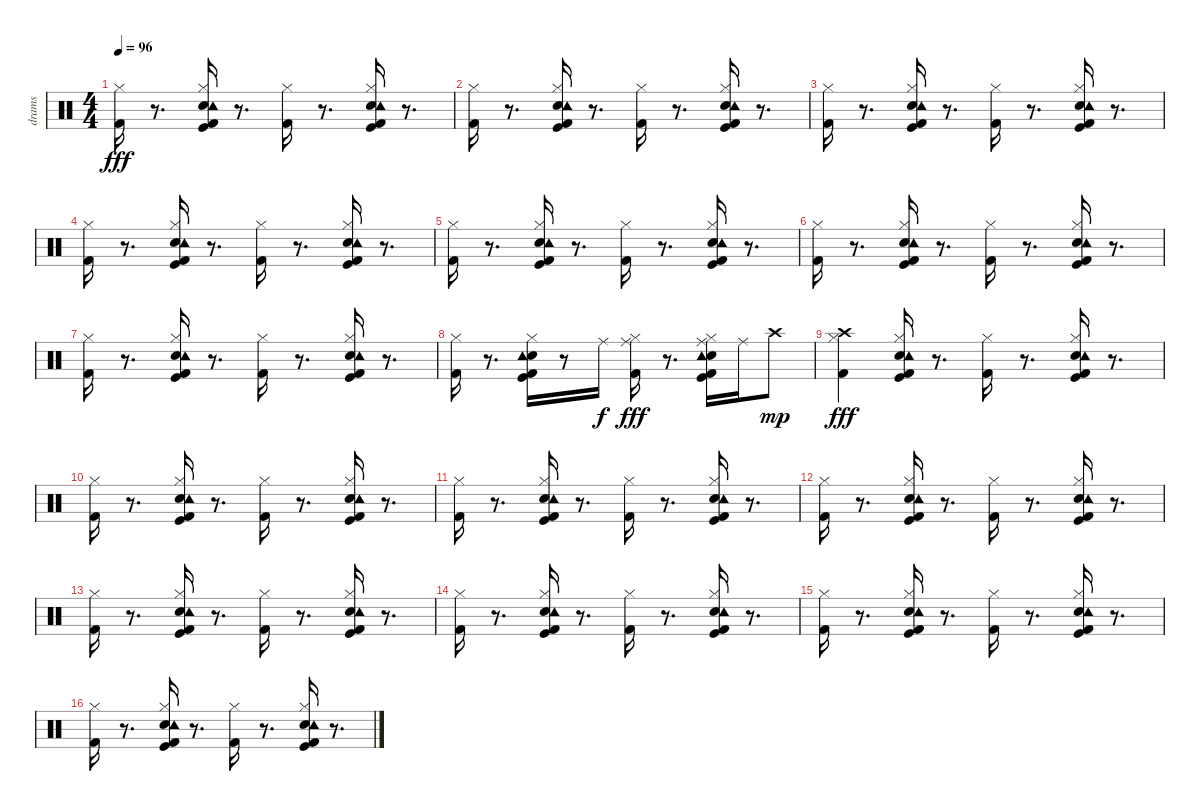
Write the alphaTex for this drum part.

\track ("drams" "drams") {instrument percussion}
\staff {score}
\articulation defaults
\ts (4 4)
\tempo 96
\clef neutral
\ks c
("Kick (hit) 2" "Hi-Hat (closed)").16{dy fff} r.8{d} ("Kick (hit)" "Kick (hit) 2" "Electric Snare (hit)" "Hi-Hat (closed)" "Tambourine (hit)").16 r.8{d} ("Kick (hit) 2" "Hi-Hat (closed)").16 r.8{d} ("Kick (hit)" "Kick (hit) 2" "Electric Snare (hit)" "Hi-Hat (closed)" "Tambourine (hit)").16 r.8{d} |
("Kick (hit) 2" "Hi-Hat (closed)").16 r.8{d} ("Kick (hit)" "Kick (hit) 2" "Electric Snare (hit)" "Hi-Hat (closed)" "Tambourine (hit)").16 r.8{d} ("Kick (hit) 2" "Hi-Hat (closed)").16 r.8{d} ("Kick (hit)" "Kick (hit) 2" "Electric Snare (hit)" "Hi-Hat (closed)" "Tambourine (hit)").16 r.8{d} |
("Kick (hit) 2" "Hi-Hat (closed)").16 r.8{d} ("Kick (hit)" "Kick (hit) 2" "Electric Snare (hit)" "Hi-Hat (closed)" "Tambourine (hit)").16 r.8{d} ("Kick (hit) 2" "Hi-Hat (closed)").16 r.8{d} ("Kick (hit)" "Kick (hit) 2" "Electric Snare (hit)" "Hi-Hat (closed)" "Tambourine (hit)").16 r.8{d} |
("Kick (hit) 2" "Hi-Hat (closed)").16 r.8{d} ("Kick (hit)" "Kick (hit) 2" "Electric Snare (hit)" "Hi-Hat (closed)" "Tambourine (hit)").16 r.8{d} ("Kick (hit) 2" "Hi-Hat (closed)").16 r.8{d} ("Kick (hit)" "Kick (hit) 2" "Electric Snare (hit)" "Hi-Hat (closed)" "Tambourine (hit)").16 r.8{d} |
("Kick (hit) 2" "Hi-Hat (closed)").16 r.8{d} ("Kick (hit)" "Kick (hit) 2" "Electric Snare (hit)" "Hi-Hat (closed)" "Tambourine (hit)").16 r.8{d} ("Kick (hit) 2" "Hi-Hat (closed)").16 r.8{d} ("Kick (hit)" "Kick (hit) 2" "Electric Snare (hit)" "Hi-Hat (closed)" "Tambourine (hit)").16 r.8{d} |
("Kick (hit) 2" "Hi-Hat (closed)").16 r.8{d} ("Kick (hit)" "Kick (hit) 2" "Electric Snare (hit)" "Hi-Hat (closed)" "Tambourine (hit)").16 r.8{d} ("Kick (hit) 2" "Hi-Hat (closed)").16 r.8{d} ("Kick (hit)" "Kick (hit) 2" "Electric Snare (hit)" "Hi-Hat (closed)" "Tambourine (hit)").16 r.8{d} |
("Kick (hit) 2" "Hi-Hat (closed)").16 r.8{d} ("Kick (hit)" "Kick (hit) 2" "Electric Snare (hit)" "Hi-Hat (closed)" "Tambourine (hit)").16 r.8{d} ("Kick (hit) 2" "Hi-Hat (closed)").16 r.8{d} ("Kick (hit)" "Kick (hit) 2" "Electric Snare (hit)" "Hi-Hat (closed)" "Tambourine (hit)").16 r.8{d} |
("Kick (hit) 2" "Hi-Hat (closed)").16 r.8{d} ("Kick (hit)" "Kick (hit) 2" "Electric Snare (hit)" "Hi-Hat (closed)" "Tambourine (hit)").16 r.8 "Ride (middle)".16{dy f} ("Kick (hit) 2" "Hi-Hat (closed)" "Ride (middle)").16{dy fff} r.8{d} ("Kick (hit)" "Kick (hit) 2" "Electric Snare (hit)" "Hi-Hat (closed)" "Ride (middle)" "Tambourine (hit)").16 "Ride (middle)".16 "Crash high (hit)".8{dy mp} |
("Kick (hit) 2" "Hi-Hat (closed)" "Crash high (hit)").4{dy fff} ("Kick (hit)" "Kick (hit) 2" "Electric Snare (hit)" "Hi-Hat (closed)" "Tambourine (hit)").16 r.8{d} ("Kick (hit) 2" "Hi-Hat (closed)").16 r.8{d} ("Kick (hit)" "Kick (hit) 2" "Electric Snare (hit)" "Hi-Hat (closed)" "Tambourine (hit)").16 r.8{d} |
("Kick (hit) 2" "Hi-Hat (closed)").16 r.8{d} ("Kick (hit)" "Kick (hit) 2" "Electric Snare (hit)" "Hi-Hat (closed)" "Tambourine (hit)").16 r.8{d} ("Kick (hit) 2" "Hi-Hat (closed)").16 r.8{d} ("Kick (hit)" "Kick (hit) 2" "Electric Snare (hit)" "Hi-Hat (closed)" "Tambourine (hit)").16 r.8{d} |
("Kick (hit) 2" "Hi-Hat (closed)").16 r.8{d} ("Kick (hit)" "Kick (hit) 2" "Electric Snare (hit)" "Hi-Hat (closed)" "Tambourine (hit)").16 r.8{d} ("Kick (hit) 2" "Hi-Hat (closed)").16 r.8{d} ("Kick (hit)" "Kick (hit) 2" "Electric Snare (hit)" "Hi-Hat (closed)" "Tambourine (hit)").16 r.8{d} |
("Kick (hit) 2" "Hi-Hat (closed)").16 r.8{d} ("Kick (hit)" "Kick (hit) 2" "Electric Snare (hit)" "Hi-Hat (closed)" "Tambourine (hit)").16 r.8{d} ("Kick (hit) 2" "Hi-Hat (closed)").16 r.8{d} ("Kick (hit)" "Kick (hit) 2" "Electric Snare (hit)" "Hi-Hat (closed)" "Tambourine (hit)").16 r.8{d} |
("Kick (hit) 2" "Hi-Hat (closed)").16 r.8{d} ("Kick (hit)" "Kick (hit) 2" "Electric Snare (hit)" "Hi-Hat (closed)" "Tambourine (hit)").16 r.8{d} ("Kick (hit) 2" "Hi-Hat (closed)").16 r.8{d} ("Kick (hit)" "Kick (hit) 2" "Electric Snare (hit)" "Hi-Hat (closed)" "Tambourine (hit)").16 r.8{d} |
("Kick (hit) 2" "Hi-Hat (closed)").16 r.8{d} ("Kick (hit)" "Kick (hit) 2" "Electric Snare (hit)" "Hi-Hat (closed)" "Tambourine (hit)").16 r.8{d} ("Kick (hit) 2" "Hi-Hat (closed)").16 r.8{d} ("Kick (hit)" "Kick (hit) 2" "Electric Snare (hit)" "Hi-Hat (closed)" "Tambourine (hit)").16 r.8{d} |
("Kick (hit) 2" "Hi-Hat (closed)").16 r.8{d} ("Kick (hit)" "Kick (hit) 2" "Electric Snare (hit)" "Hi-Hat (closed)" "Tambourine (hit)").16 r.8{d} ("Kick (hit) 2" "Hi-Hat (closed)").16 r.8{d} ("Kick (hit)" "Kick (hit) 2" "Electric Snare (hit)" "Hi-Hat (closed)" "Tambourine (hit)").16 r.8{d} |
("Kick (hit) 2" "Hi-Hat (closed)").16 r.8{d} ("Kick (hit)" "Kick (hit) 2" "Electric Snare (hit)" "Hi-Hat (closed)" "Tambourine (hit)").16 r.8{d} ("Kick (hit) 2" "Hi-Hat (closed)").16 r.8{d} ("Kick (hit)" "Kick (hit) 2" "Electric Snare (hit)" "Hi-Hat (closed)" "Tambourine (hit)").16 r.8{d}
